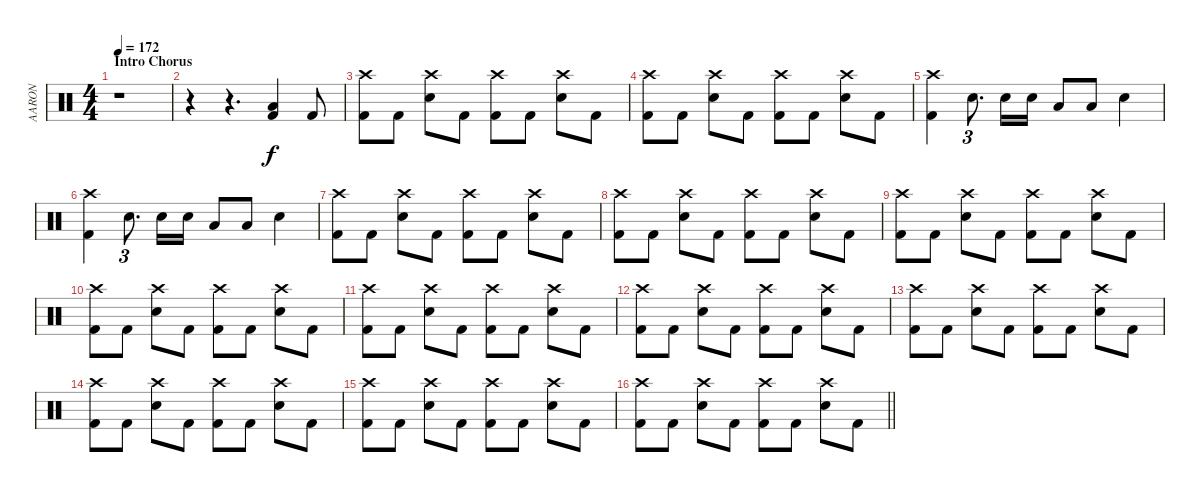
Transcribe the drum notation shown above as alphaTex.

\track ("AARON" "AARON") {instrument percussion}
\staff {score}
\articulation defaults
\ts (4 4)
\section ("" "Intro Chorus")
\tempo 172
\clef neutral
\ks c
r.1{dy f} |
r.4 r.4{d} ("Low Tom (hit)" "Kick (hit) 2").4 "Kick (hit) 2".8 |
("Crash high (hit)" "Kick (hit) 2").8 "Kick (hit) 2".8 ("Crash high (hit)" "Electric Snare (hit)").8 "Kick (hit) 2".8 ("Crash high (hit)" "Kick (hit) 2").8 "Kick (hit) 2".8 ("Crash high (hit)" "Electric Snare (hit)").8 "Kick (hit) 2".8 |
("Crash high (hit)" "Kick (hit) 2").8 "Kick (hit) 2".8 ("Crash high (hit)" "Electric Snare (hit)").8 "Kick (hit) 2".8 ("Crash high (hit)" "Kick (hit) 2").8 "Kick (hit) 2".8 ("Crash high (hit)" "Electric Snare (hit)").8 "Kick (hit) 2".8 |
("Crash high (hit)" "Kick (hit) 2").4 "Electric Snare (hit)".8{d tu (3 2)} "Electric Snare (hit)".16 "Electric Snare (hit)".16 "Low Tom (hit)".8 "Low Tom (hit)".8 "Electric Snare (hit)".4 |
("Crash high (hit)" "Kick (hit) 2").4 "Electric Snare (hit)".8{d tu (3 2)} "Electric Snare (hit)".16 "Electric Snare (hit)".16 "Low Tom (hit)".8 "Low Tom (hit)".8 "Electric Snare (hit)".4 |
("Crash high (hit)" "Kick (hit) 2").8 "Kick (hit) 2".8 ("Crash high (hit)" "Electric Snare (hit)").8 "Kick (hit) 2".8 ("Crash high (hit)" "Kick (hit) 2").8 "Kick (hit) 2".8 ("Crash high (hit)" "Electric Snare (hit)").8 "Kick (hit) 2".8 |
("Crash high (hit)" "Kick (hit) 2").8 "Kick (hit) 2".8 ("Crash high (hit)" "Electric Snare (hit)").8 "Kick (hit) 2".8 ("Crash high (hit)" "Kick (hit) 2").8 "Kick (hit) 2".8 ("Crash high (hit)" "Electric Snare (hit)").8 "Kick (hit) 2".8 |
("Crash high (hit)" "Kick (hit) 2").8 "Kick (hit) 2".8 ("Crash high (hit)" "Electric Snare (hit)").8 "Kick (hit) 2".8 ("Crash high (hit)" "Kick (hit) 2").8 "Kick (hit) 2".8 ("Crash high (hit)" "Electric Snare (hit)").8 "Kick (hit) 2".8 |
("Crash high (hit)" "Kick (hit) 2").8 "Kick (hit) 2".8 ("Crash high (hit)" "Electric Snare (hit)").8 "Kick (hit) 2".8 ("Crash high (hit)" "Kick (hit) 2").8 "Kick (hit) 2".8 ("Crash high (hit)" "Electric Snare (hit)").8 "Kick (hit) 2".8 |
("Crash high (hit)" "Kick (hit) 2").8 "Kick (hit) 2".8 ("Crash high (hit)" "Electric Snare (hit)").8 "Kick (hit) 2".8 ("Crash high (hit)" "Kick (hit) 2").8 "Kick (hit) 2".8 ("Crash high (hit)" "Electric Snare (hit)").8 "Kick (hit) 2".8 |
("Crash high (hit)" "Kick (hit) 2").8 "Kick (hit) 2".8 ("Crash high (hit)" "Electric Snare (hit)").8 "Kick (hit) 2".8 ("Crash high (hit)" "Kick (hit) 2").8 "Kick (hit) 2".8 ("Crash high (hit)" "Electric Snare (hit)").8 "Kick (hit) 2".8 |
("Crash high (hit)" "Kick (hit) 2").8 "Kick (hit) 2".8 ("Crash high (hit)" "Electric Snare (hit)").8 "Kick (hit) 2".8 ("Crash high (hit)" "Kick (hit) 2").8 "Kick (hit) 2".8 ("Crash high (hit)" "Electric Snare (hit)").8 "Kick (hit) 2".8 |
("Crash high (hit)" "Kick (hit) 2").8 "Kick (hit) 2".8 ("Crash high (hit)" "Electric Snare (hit)").8 "Kick (hit) 2".8 ("Crash high (hit)" "Kick (hit) 2").8 "Kick (hit) 2".8 ("Crash high (hit)" "Electric Snare (hit)").8 "Kick (hit) 2".8 |
("Crash high (hit)" "Kick (hit) 2").8 "Kick (hit) 2".8 ("Crash high (hit)" "Electric Snare (hit)").8 "Kick (hit) 2".8 ("Crash high (hit)" "Kick (hit) 2").8 "Kick (hit) 2".8 ("Crash high (hit)" "Electric Snare (hit)").8 "Kick (hit) 2".8 |
\barLineRight lightlight
("Crash high (hit)" "Kick (hit) 2").8 "Kick (hit) 2".8 ("Crash high (hit)" "Electric Snare (hit)").8 "Kick (hit) 2".8 ("Crash high (hit)" "Kick (hit) 2").8 "Kick (hit) 2".8 ("Crash high (hit)" "Electric Snare (hit)").8 "Kick (hit) 2".8
